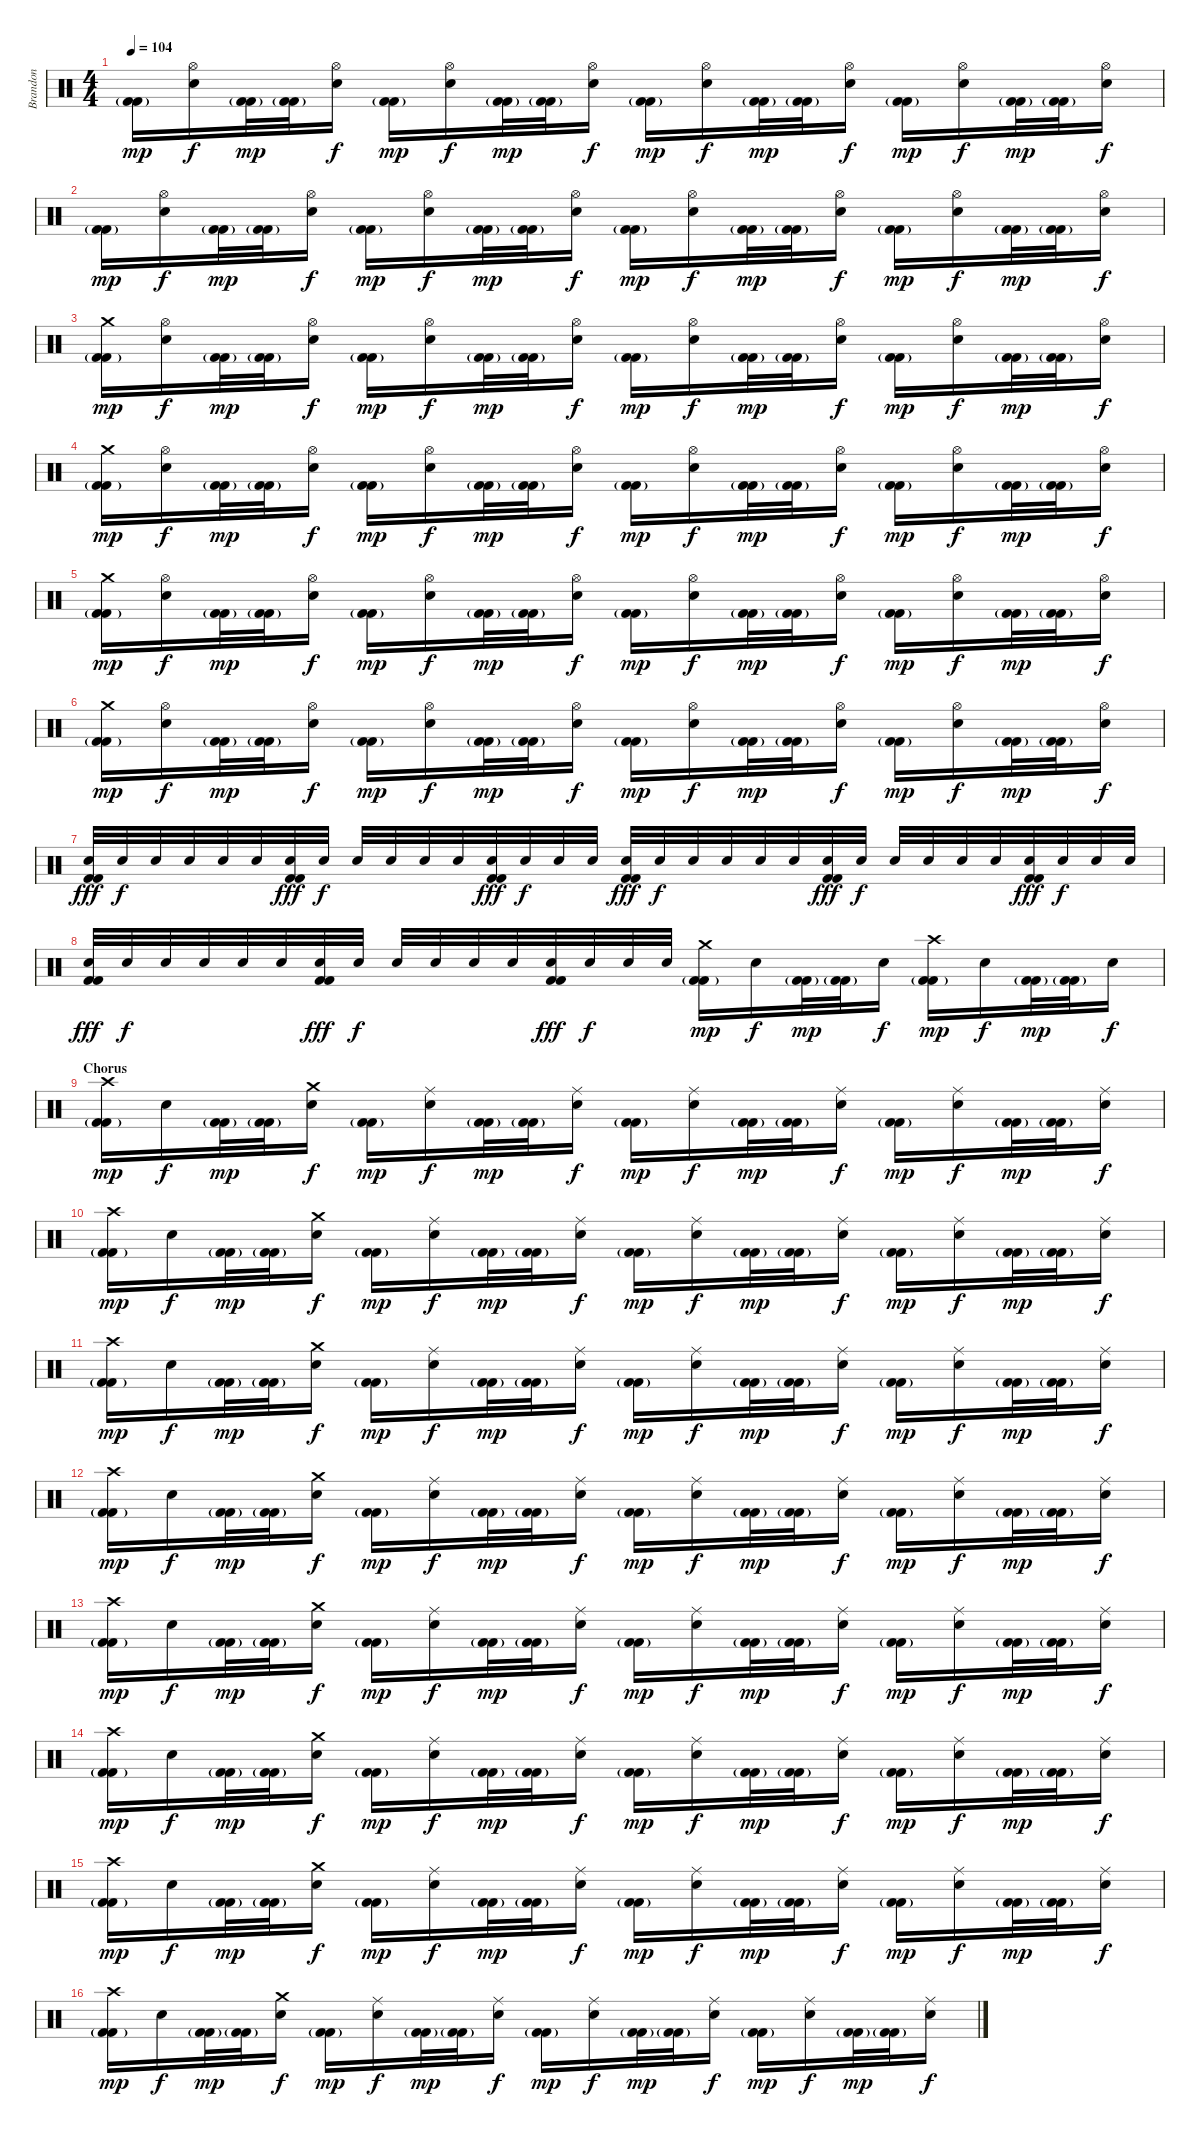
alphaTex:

\track ("Brandon" "Brandon") {instrument percussion}
\staff {score}
\articulation defaults
\ts (4 4)
\tempo 104
\clef neutral
\ks c
("Kick (hit) 2"{g} "Kick (hit) 2").16{dy mp} ("Hi-Hat (open)" "Electric Snare (hit)").16{dy f} ("Kick (hit) 2"{g} "Kick (hit) 2").32{dy mp} ("Kick (hit) 2"{g} "Kick (hit) 2").32 ("Hi-Hat (open)" "Electric Snare (hit)").16{dy f} ("Kick (hit) 2"{g} "Kick (hit) 2").16{dy mp} ("Hi-Hat (open)" "Electric Snare (hit)").16{dy f} ("Kick (hit) 2"{g} "Kick (hit) 2").32{dy mp} ("Kick (hit) 2"{g} "Kick (hit) 2").32 ("Hi-Hat (open)" "Electric Snare (hit)").16{dy f} ("Kick (hit) 2"{g} "Kick (hit) 2").16{dy mp} ("Hi-Hat (open)" "Electric Snare (hit)").16{dy f} ("Kick (hit) 2"{g} "Kick (hit) 2").32{dy mp} ("Kick (hit) 2"{g} "Kick (hit) 2").32 ("Hi-Hat (open)" "Electric Snare (hit)").16{dy f} ("Kick (hit) 2"{g} "Kick (hit) 2").16{dy mp} ("Hi-Hat (open)" "Electric Snare (hit)").16{dy f} ("Kick (hit) 2"{g} "Kick (hit) 2").32{dy mp} ("Kick (hit) 2"{g} "Kick (hit) 2").32 ("Hi-Hat (open)" "Electric Snare (hit)").16{dy f} |
("Kick (hit) 2"{g} "Kick (hit) 2").16{dy mp} ("Hi-Hat (open)" "Electric Snare (hit)").16{dy f} ("Kick (hit) 2"{g} "Kick (hit) 2").32{dy mp} ("Kick (hit) 2"{g} "Kick (hit) 2").32 ("Hi-Hat (open)" "Electric Snare (hit)").16{dy f} ("Kick (hit) 2"{g} "Kick (hit) 2").16{dy mp} ("Hi-Hat (open)" "Electric Snare (hit)").16{dy f} ("Kick (hit) 2"{g} "Kick (hit) 2").32{dy mp} ("Kick (hit) 2"{g} "Kick (hit) 2").32 ("Hi-Hat (open)" "Electric Snare (hit)").16{dy f} ("Kick (hit) 2"{g} "Kick (hit) 2").16{dy mp} ("Hi-Hat (open)" "Electric Snare (hit)").16{dy f} ("Kick (hit) 2"{g} "Kick (hit) 2").32{dy mp} ("Kick (hit) 2"{g} "Kick (hit) 2").32 ("Hi-Hat (open)" "Electric Snare (hit)").16{dy f} ("Kick (hit) 2"{g} "Kick (hit) 2").16{dy mp} ("Hi-Hat (open)" "Electric Snare (hit)").16{dy f} ("Kick (hit) 2"{g} "Kick (hit) 2").32{dy mp} ("Kick (hit) 2"{g} "Kick (hit) 2").32 ("Hi-Hat (open)" "Electric Snare (hit)").16{dy f} |
("Crash medium (hit)" "Kick (hit) 2"{g} "Kick (hit) 2").16{dy mp} ("Hi-Hat (open)" "Electric Snare (hit)").16{dy f} ("Kick (hit) 2"{g} "Kick (hit) 2").32{dy mp} ("Kick (hit) 2"{g} "Kick (hit) 2").32 ("Hi-Hat (open)" "Electric Snare (hit)").16{dy f} ("Kick (hit) 2"{g} "Kick (hit) 2").16{dy mp} ("Hi-Hat (open)" "Electric Snare (hit)").16{dy f} ("Kick (hit) 2"{g} "Kick (hit) 2").32{dy mp} ("Kick (hit) 2"{g} "Kick (hit) 2").32 ("Hi-Hat (open)" "Electric Snare (hit)").16{dy f} ("Kick (hit) 2"{g} "Kick (hit) 2").16{dy mp} ("Hi-Hat (open)" "Electric Snare (hit)").16{dy f} ("Kick (hit) 2"{g} "Kick (hit) 2").32{dy mp} ("Kick (hit) 2"{g} "Kick (hit) 2").32 ("Hi-Hat (open)" "Electric Snare (hit)").16{dy f} ("Kick (hit) 2"{g} "Kick (hit) 2").16{dy mp} ("Hi-Hat (open)" "Electric Snare (hit)").16{dy f} ("Kick (hit) 2"{g} "Kick (hit) 2").32{dy mp} ("Kick (hit) 2"{g} "Kick (hit) 2").32 ("Hi-Hat (open)" "Electric Snare (hit)").16{dy f} |
("Crash medium (hit)" "Kick (hit) 2"{g} "Kick (hit) 2").16{dy mp} ("Hi-Hat (open)" "Electric Snare (hit)").16{dy f} ("Kick (hit) 2"{g} "Kick (hit) 2").32{dy mp} ("Kick (hit) 2"{g} "Kick (hit) 2").32 ("Hi-Hat (open)" "Electric Snare (hit)").16{dy f} ("Kick (hit) 2"{g} "Kick (hit) 2").16{dy mp} ("Hi-Hat (open)" "Electric Snare (hit)").16{dy f} ("Kick (hit) 2"{g} "Kick (hit) 2").32{dy mp} ("Kick (hit) 2"{g} "Kick (hit) 2").32 ("Hi-Hat (open)" "Electric Snare (hit)").16{dy f} ("Kick (hit) 2"{g} "Kick (hit) 2").16{dy mp} ("Hi-Hat (open)" "Electric Snare (hit)").16{dy f} ("Kick (hit) 2"{g} "Kick (hit) 2").32{dy mp} ("Kick (hit) 2"{g} "Kick (hit) 2").32 ("Hi-Hat (open)" "Electric Snare (hit)").16{dy f} ("Kick (hit) 2"{g} "Kick (hit) 2").16{dy mp} ("Hi-Hat (open)" "Electric Snare (hit)").16{dy f} ("Kick (hit) 2"{g} "Kick (hit) 2").32{dy mp} ("Kick (hit) 2"{g} "Kick (hit) 2").32 ("Hi-Hat (open)" "Electric Snare (hit)").16{dy f} |
("Crash medium (hit)" "Kick (hit) 2"{g} "Kick (hit) 2").16{dy mp} ("Hi-Hat (open)" "Electric Snare (hit)").16{dy f} ("Kick (hit) 2"{g} "Kick (hit) 2").32{dy mp} ("Kick (hit) 2"{g} "Kick (hit) 2").32 ("Hi-Hat (open)" "Electric Snare (hit)").16{dy f} ("Kick (hit) 2"{g} "Kick (hit) 2").16{dy mp} ("Hi-Hat (open)" "Electric Snare (hit)").16{dy f} ("Kick (hit) 2"{g} "Kick (hit) 2").32{dy mp} ("Kick (hit) 2"{g} "Kick (hit) 2").32 ("Hi-Hat (open)" "Electric Snare (hit)").16{dy f} ("Kick (hit) 2"{g} "Kick (hit) 2").16{dy mp} ("Hi-Hat (open)" "Electric Snare (hit)").16{dy f} ("Kick (hit) 2"{g} "Kick (hit) 2").32{dy mp} ("Kick (hit) 2"{g} "Kick (hit) 2").32 ("Hi-Hat (open)" "Electric Snare (hit)").16{dy f} ("Kick (hit) 2"{g} "Kick (hit) 2").16{dy mp} ("Hi-Hat (open)" "Electric Snare (hit)").16{dy f} ("Kick (hit) 2"{g} "Kick (hit) 2").32{dy mp} ("Kick (hit) 2"{g} "Kick (hit) 2").32 ("Hi-Hat (open)" "Electric Snare (hit)").16{dy f} |
("Crash medium (hit)" "Kick (hit) 2"{g} "Kick (hit) 2").16{dy mp} ("Hi-Hat (open)" "Electric Snare (hit)").16{dy f} ("Kick (hit) 2"{g} "Kick (hit) 2").32{dy mp} ("Kick (hit) 2"{g} "Kick (hit) 2").32 ("Hi-Hat (open)" "Electric Snare (hit)").16{dy f} ("Kick (hit) 2"{g} "Kick (hit) 2").16{dy mp} ("Hi-Hat (open)" "Electric Snare (hit)").16{dy f} ("Kick (hit) 2"{g} "Kick (hit) 2").32{dy mp} ("Kick (hit) 2"{g} "Kick (hit) 2").32 ("Hi-Hat (open)" "Electric Snare (hit)").16{dy f} ("Kick (hit) 2"{g} "Kick (hit) 2").16{dy mp} ("Hi-Hat (open)" "Electric Snare (hit)").16{dy f} ("Kick (hit) 2"{g} "Kick (hit) 2").32{dy mp} ("Kick (hit) 2"{g} "Kick (hit) 2").32 ("Hi-Hat (open)" "Electric Snare (hit)").16{dy f} ("Kick (hit) 2"{g} "Kick (hit) 2").16{dy mp} ("Hi-Hat (open)" "Electric Snare (hit)").16{dy f} ("Kick (hit) 2"{g} "Kick (hit) 2").32{dy mp} ("Kick (hit) 2"{g} "Kick (hit) 2").32 ("Hi-Hat (open)" "Electric Snare (hit)").16{dy f} |
("Electric Snare (hit)" "Kick (hit) 2" "Kick (hit) 2").32{dy fff} "Electric Snare (hit)".32{dy f} "Electric Snare (hit)".32 "Electric Snare (hit)".32 "Electric Snare (hit)".32 "Electric Snare (hit)".32 ("Electric Snare (hit)" "Kick (hit) 2" "Kick (hit) 2").32{dy fff} "Electric Snare (hit)".32{dy f} "Electric Snare (hit)".32 "Electric Snare (hit)".32 "Electric Snare (hit)".32 "Electric Snare (hit)".32 ("Electric Snare (hit)" "Kick (hit) 2" "Kick (hit) 2").32{dy fff} "Electric Snare (hit)".32{dy f} "Electric Snare (hit)".32 "Electric Snare (hit)".32 ("Electric Snare (hit)" "Kick (hit) 2" "Kick (hit) 2").32{dy fff} "Electric Snare (hit)".32{dy f} "Electric Snare (hit)".32 "Electric Snare (hit)".32 "Electric Snare (hit)".32 "Electric Snare (hit)".32 ("Electric Snare (hit)" "Kick (hit) 2" "Kick (hit) 2").32{dy fff} "Electric Snare (hit)".32{dy f} "Electric Snare (hit)".32 "Electric Snare (hit)".32 "Electric Snare (hit)".32 "Electric Snare (hit)".32 ("Electric Snare (hit)" "Kick (hit) 2" "Kick (hit) 2").32{dy fff} "Electric Snare (hit)".32{dy f} "Electric Snare (hit)".32 "Electric Snare (hit)".32 |
("Electric Snare (hit)" "Kick (hit) 2" "Kick (hit) 2").32{dy fff} "Electric Snare (hit)".32{dy f} "Electric Snare (hit)".32 "Electric Snare (hit)".32 "Electric Snare (hit)".32 "Electric Snare (hit)".32 ("Electric Snare (hit)" "Kick (hit) 2" "Kick (hit) 2").32{dy fff} "Electric Snare (hit)".32{dy f} "Electric Snare (hit)".32 "Electric Snare (hit)".32 "Electric Snare (hit)".32 "Electric Snare (hit)".32 ("Electric Snare (hit)" "Kick (hit) 2" "Kick (hit) 2").32{dy fff} "Electric Snare (hit)".32{dy f} "Electric Snare (hit)".32 "Electric Snare (hit)".32 ("Crash medium (hit)" "Kick (hit) 2"{g} "Kick (hit) 2").16{dy mp} "Electric Snare (hit)".16{dy f} ("Kick (hit) 2"{g} "Kick (hit) 2").32{dy mp} ("Kick (hit) 2"{g} "Kick (hit) 2").32 "Electric Snare (hit)".16{dy f} ("Crash high (hit)" "Kick (hit) 2"{g} "Kick (hit) 2").16{dy mp} "Electric Snare (hit)".16{dy f} ("Kick (hit) 2"{g} "Kick (hit) 2").32{dy mp} ("Kick (hit) 2"{g} "Kick (hit) 2").32 "Electric Snare (hit)".16{dy f} |
\section ("" "Chorus")
("Crash high (hit)" "Kick (hit) 2"{g} "Kick (hit) 2").16{dy mp} "Electric Snare (hit)".16{dy f} ("Kick (hit) 2"{g} "Kick (hit) 2").32{dy mp} ("Kick (hit) 2"{g} "Kick (hit) 2").32 ("Crash medium (hit)" "Electric Snare (hit)").16{dy f} ("Kick (hit) 2"{g} "Kick (hit) 2").16{dy mp} ("Ride (middle)" "Electric Snare (hit)").16{dy f} ("Kick (hit) 2"{g} "Kick (hit) 2").32{dy mp} ("Kick (hit) 2"{g} "Kick (hit) 2").32 ("Ride (middle)" "Electric Snare (hit)").16{dy f} ("Kick (hit) 2"{g} "Kick (hit) 2").16{dy mp} ("Ride (middle)" "Electric Snare (hit)").16{dy f} ("Kick (hit) 2"{g} "Kick (hit) 2").32{dy mp} ("Kick (hit) 2"{g} "Kick (hit) 2").32 ("Ride (middle)" "Electric Snare (hit)").16{dy f} ("Kick (hit) 2"{g} "Kick (hit) 2").16{dy mp} ("Ride (middle)" "Electric Snare (hit)").16{dy f} ("Kick (hit) 2"{g} "Kick (hit) 2").32{dy mp} ("Kick (hit) 2"{g} "Kick (hit) 2").32 ("Ride (middle)" "Electric Snare (hit)").16{dy f} |
("Crash high (hit)" "Kick (hit) 2"{g} "Kick (hit) 2").16{dy mp} "Electric Snare (hit)".16{dy f} ("Kick (hit) 2"{g} "Kick (hit) 2").32{dy mp} ("Kick (hit) 2"{g} "Kick (hit) 2").32 ("Crash medium (hit)" "Electric Snare (hit)").16{dy f} ("Kick (hit) 2"{g} "Kick (hit) 2").16{dy mp} ("Ride (middle)" "Electric Snare (hit)").16{dy f} ("Kick (hit) 2"{g} "Kick (hit) 2").32{dy mp} ("Kick (hit) 2"{g} "Kick (hit) 2").32 ("Ride (middle)" "Electric Snare (hit)").16{dy f} ("Kick (hit) 2"{g} "Kick (hit) 2").16{dy mp} ("Ride (middle)" "Electric Snare (hit)").16{dy f} ("Kick (hit) 2"{g} "Kick (hit) 2").32{dy mp} ("Kick (hit) 2"{g} "Kick (hit) 2").32 ("Ride (middle)" "Electric Snare (hit)").16{dy f} ("Kick (hit) 2"{g} "Kick (hit) 2").16{dy mp} ("Ride (middle)" "Electric Snare (hit)").16{dy f} ("Kick (hit) 2"{g} "Kick (hit) 2").32{dy mp} ("Kick (hit) 2"{g} "Kick (hit) 2").32 ("Ride (middle)" "Electric Snare (hit)").16{dy f} |
("Crash high (hit)" "Kick (hit) 2"{g} "Kick (hit) 2").16{dy mp} "Electric Snare (hit)".16{dy f} ("Kick (hit) 2"{g} "Kick (hit) 2").32{dy mp} ("Kick (hit) 2"{g} "Kick (hit) 2").32 ("Crash medium (hit)" "Electric Snare (hit)").16{dy f} ("Kick (hit) 2"{g} "Kick (hit) 2").16{dy mp} ("Ride (middle)" "Electric Snare (hit)").16{dy f} ("Kick (hit) 2"{g} "Kick (hit) 2").32{dy mp} ("Kick (hit) 2"{g} "Kick (hit) 2").32 ("Ride (middle)" "Electric Snare (hit)").16{dy f} ("Kick (hit) 2"{g} "Kick (hit) 2").16{dy mp} ("Ride (middle)" "Electric Snare (hit)").16{dy f} ("Kick (hit) 2"{g} "Kick (hit) 2").32{dy mp} ("Kick (hit) 2"{g} "Kick (hit) 2").32 ("Ride (middle)" "Electric Snare (hit)").16{dy f} ("Kick (hit) 2"{g} "Kick (hit) 2").16{dy mp} ("Ride (middle)" "Electric Snare (hit)").16{dy f} ("Kick (hit) 2"{g} "Kick (hit) 2").32{dy mp} ("Kick (hit) 2"{g} "Kick (hit) 2").32 ("Ride (middle)" "Electric Snare (hit)").16{dy f} |
("Crash high (hit)" "Kick (hit) 2"{g} "Kick (hit) 2").16{dy mp} "Electric Snare (hit)".16{dy f} ("Kick (hit) 2"{g} "Kick (hit) 2").32{dy mp} ("Kick (hit) 2"{g} "Kick (hit) 2").32 ("Crash medium (hit)" "Electric Snare (hit)").16{dy f} ("Kick (hit) 2"{g} "Kick (hit) 2").16{dy mp} ("Ride (middle)" "Electric Snare (hit)").16{dy f} ("Kick (hit) 2"{g} "Kick (hit) 2").32{dy mp} ("Kick (hit) 2"{g} "Kick (hit) 2").32 ("Ride (middle)" "Electric Snare (hit)").16{dy f} ("Kick (hit) 2"{g} "Kick (hit) 2").16{dy mp} ("Ride (middle)" "Electric Snare (hit)").16{dy f} ("Kick (hit) 2"{g} "Kick (hit) 2").32{dy mp} ("Kick (hit) 2"{g} "Kick (hit) 2").32 ("Ride (middle)" "Electric Snare (hit)").16{dy f} ("Kick (hit) 2"{g} "Kick (hit) 2").16{dy mp} ("Ride (middle)" "Electric Snare (hit)").16{dy f} ("Kick (hit) 2"{g} "Kick (hit) 2").32{dy mp} ("Kick (hit) 2"{g} "Kick (hit) 2").32 ("Ride (middle)" "Electric Snare (hit)").16{dy f} |
("Crash high (hit)" "Kick (hit) 2"{g} "Kick (hit) 2").16{dy mp} "Electric Snare (hit)".16{dy f} ("Kick (hit) 2"{g} "Kick (hit) 2").32{dy mp} ("Kick (hit) 2"{g} "Kick (hit) 2").32 ("Crash medium (hit)" "Electric Snare (hit)").16{dy f} ("Kick (hit) 2"{g} "Kick (hit) 2").16{dy mp} ("Ride (middle)" "Electric Snare (hit)").16{dy f} ("Kick (hit) 2"{g} "Kick (hit) 2").32{dy mp} ("Kick (hit) 2"{g} "Kick (hit) 2").32 ("Ride (middle)" "Electric Snare (hit)").16{dy f} ("Kick (hit) 2"{g} "Kick (hit) 2").16{dy mp} ("Ride (middle)" "Electric Snare (hit)").16{dy f} ("Kick (hit) 2"{g} "Kick (hit) 2").32{dy mp} ("Kick (hit) 2"{g} "Kick (hit) 2").32 ("Ride (middle)" "Electric Snare (hit)").16{dy f} ("Kick (hit) 2"{g} "Kick (hit) 2").16{dy mp} ("Ride (middle)" "Electric Snare (hit)").16{dy f} ("Kick (hit) 2"{g} "Kick (hit) 2").32{dy mp} ("Kick (hit) 2"{g} "Kick (hit) 2").32 ("Ride (middle)" "Electric Snare (hit)").16{dy f} |
("Crash high (hit)" "Kick (hit) 2"{g} "Kick (hit) 2").16{dy mp} "Electric Snare (hit)".16{dy f} ("Kick (hit) 2"{g} "Kick (hit) 2").32{dy mp} ("Kick (hit) 2"{g} "Kick (hit) 2").32 ("Crash medium (hit)" "Electric Snare (hit)").16{dy f} ("Kick (hit) 2"{g} "Kick (hit) 2").16{dy mp} ("Ride (middle)" "Electric Snare (hit)").16{dy f} ("Kick (hit) 2"{g} "Kick (hit) 2").32{dy mp} ("Kick (hit) 2"{g} "Kick (hit) 2").32 ("Ride (middle)" "Electric Snare (hit)").16{dy f} ("Kick (hit) 2"{g} "Kick (hit) 2").16{dy mp} ("Ride (middle)" "Electric Snare (hit)").16{dy f} ("Kick (hit) 2"{g} "Kick (hit) 2").32{dy mp} ("Kick (hit) 2"{g} "Kick (hit) 2").32 ("Ride (middle)" "Electric Snare (hit)").16{dy f} ("Kick (hit) 2"{g} "Kick (hit) 2").16{dy mp} ("Ride (middle)" "Electric Snare (hit)").16{dy f} ("Kick (hit) 2"{g} "Kick (hit) 2").32{dy mp} ("Kick (hit) 2"{g} "Kick (hit) 2").32 ("Ride (middle)" "Electric Snare (hit)").16{dy f} |
("Crash high (hit)" "Kick (hit) 2"{g} "Kick (hit) 2").16{dy mp} "Electric Snare (hit)".16{dy f} ("Kick (hit) 2"{g} "Kick (hit) 2").32{dy mp} ("Kick (hit) 2"{g} "Kick (hit) 2").32 ("Crash medium (hit)" "Electric Snare (hit)").16{dy f} ("Kick (hit) 2"{g} "Kick (hit) 2").16{dy mp} ("Ride (middle)" "Electric Snare (hit)").16{dy f} ("Kick (hit) 2"{g} "Kick (hit) 2").32{dy mp} ("Kick (hit) 2"{g} "Kick (hit) 2").32 ("Ride (middle)" "Electric Snare (hit)").16{dy f} ("Kick (hit) 2"{g} "Kick (hit) 2").16{dy mp} ("Ride (middle)" "Electric Snare (hit)").16{dy f} ("Kick (hit) 2"{g} "Kick (hit) 2").32{dy mp} ("Kick (hit) 2"{g} "Kick (hit) 2").32 ("Ride (middle)" "Electric Snare (hit)").16{dy f} ("Kick (hit) 2"{g} "Kick (hit) 2").16{dy mp} ("Ride (middle)" "Electric Snare (hit)").16{dy f} ("Kick (hit) 2"{g} "Kick (hit) 2").32{dy mp} ("Kick (hit) 2"{g} "Kick (hit) 2").32 ("Ride (middle)" "Electric Snare (hit)").16{dy f} |
("Crash high (hit)" "Kick (hit) 2"{g} "Kick (hit) 2").16{dy mp} "Electric Snare (hit)".16{dy f} ("Kick (hit) 2"{g} "Kick (hit) 2").32{dy mp} ("Kick (hit) 2"{g} "Kick (hit) 2").32 ("Crash medium (hit)" "Electric Snare (hit)").16{dy f} ("Kick (hit) 2"{g} "Kick (hit) 2").16{dy mp} ("Ride (middle)" "Electric Snare (hit)").16{dy f} ("Kick (hit) 2"{g} "Kick (hit) 2").32{dy mp} ("Kick (hit) 2"{g} "Kick (hit) 2").32 ("Ride (middle)" "Electric Snare (hit)").16{dy f} ("Kick (hit) 2"{g} "Kick (hit) 2").16{dy mp} ("Ride (middle)" "Electric Snare (hit)").16{dy f} ("Kick (hit) 2"{g} "Kick (hit) 2").32{dy mp} ("Kick (hit) 2"{g} "Kick (hit) 2").32 ("Ride (middle)" "Electric Snare (hit)").16{dy f} ("Kick (hit) 2"{g} "Kick (hit) 2").16{dy mp} ("Ride (middle)" "Electric Snare (hit)").16{dy f} ("Kick (hit) 2"{g} "Kick (hit) 2").32{dy mp} ("Kick (hit) 2"{g} "Kick (hit) 2").32 ("Ride (middle)" "Electric Snare (hit)").16{dy f}
